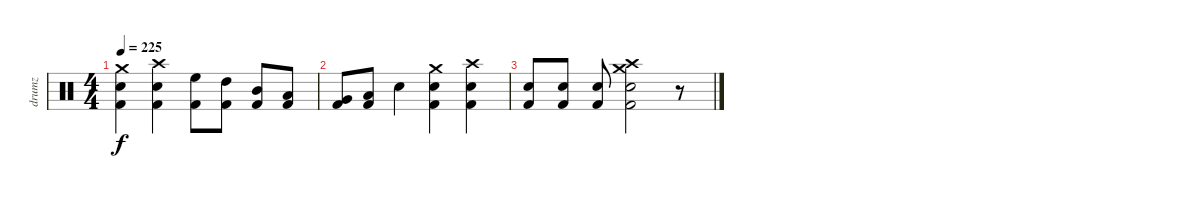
\track ("drumz" "drumz") {instrument percussion}
\staff {score}
\articulation defaults
\ts (4 4)
\tempo 225
\clef neutral
\ks c
("Crash medium (hit)" "Electric Snare (hit)" "Kick (hit) 2").4{dy f} ("Crash high (hit)" "Electric Snare (hit)" "Kick (hit) 2").4 ("High Floor Tom (hit)" "Kick (hit) 2").8 ("High Tom (hit)" "Kick (hit) 2").8 ("Mid Tom (hit)" "Kick (hit) 2").8 ("Low Tom (hit)" "Kick (hit) 2").8 |
("Very Low Tom (hit)" "Kick (hit) 2").8 ("Low Floor Tom (hit)" "Kick (hit) 2").8 "Electric Snare (hit)".4 ("Crash medium (hit)" "Electric Snare (hit)" "Kick (hit) 2").4 ("Crash high (hit)" "Electric Snare (hit)" "Kick (hit) 2").4 |
("Electric Snare (hit)" "Kick (hit) 2").8 ("Electric Snare (hit)" "Kick (hit) 2").8 ("Electric Snare (hit)" "Kick (hit) 2").8 ("Crash medium (hit)" "Crash high (hit)" "Electric Snare (hit)" "Kick (hit) 2").2 r.8
